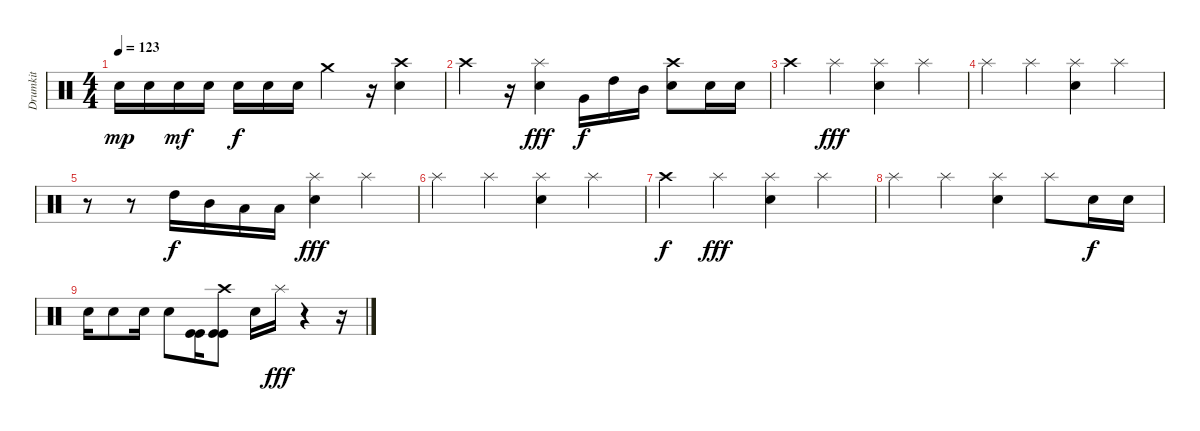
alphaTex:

\track ("Drumkit" "Drumkit") {instrument percussion}
\staff {score}
\articulation defaults
\ts (4 4)
\tempo 123
\clef neutral
\ks c "Electric Snare (hit)".16{dy mp} "Electric Snare (hit)".16 "Electric Snare (hit)".16{dy mf} "Electric Snare (hit)".16 "Electric Snare (hit)".16{dy f} "Electric Snare (hit)".16 "Electric Snare (hit)".16 "Crash medium (hit)".4
r.16 ("Crash high (hit)" "Electric Snare (hit)").4 |
"Crash high (hit)".4 r.16 ("Splash (hit)" "Electric Snare (hit)").4{dy fff} "Very Low Tom (hit)".16{dy f} "High Tom (hit)".16 "Mid Tom (hit)".16 ("Crash high (hit)" "Electric Snare (hit)").8 "Electric Snare (hit)".16 "Electric Snare (hit)".16 |
"Crash high (hit)".4 "Splash (hit)".4{dy fff} ("Splash (hit)" "Electric Snare (hit)").4 "Splash (hit)".4 |
"Splash (hit)".4 "Splash (hit)".4 ("Splash (hit)" "Electric Snare (hit)").4 "Splash (hit)".4 |
r.8 r.8 "High Tom (hit)".16{dy f} "Mid Tom (hit)".16 "Low Tom (hit)".16 "Low Tom (hit)".16 ("Splash (hit)" "Electric Snare (hit)").4{dy fff} "Splash (hit)".4 |
"Splash (hit)".4 "Splash (hit)".4 ("Splash (hit)" "Electric Snare (hit)").4 "Splash (hit)".4 |
"Crash high (hit)".4{dy f} "Splash (hit)".4{dy fff} ("Splash (hit)" "Electric Snare (hit)").4 "Splash (hit)".4 |
"Splash (hit)".4 "Splash (hit)".4 ("Splash (hit)" "Electric Snare (hit)").4 "Splash (hit)".8 "Electric Snare (hit)".16{dy f} "Electric Snare (hit)".16 |
"Electric Snare (hit)".16 "Electric Snare (hit)".8 "Electric Snare (hit)".16 "Electric Snare (hit)".8 ("Kick (hit)" "Kick (hit)").16 ("Crash high (hit)" "Kick (hit)" "Kick (hit)").8 "Electric Snare (hit)".16 "Splash (hit)".16{dy fff} r.4 r.16
